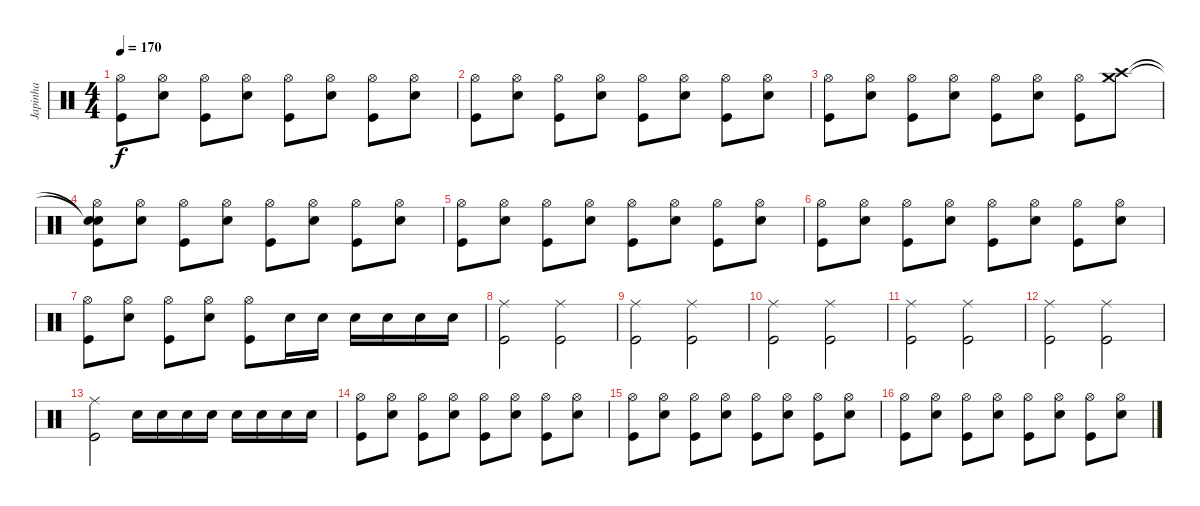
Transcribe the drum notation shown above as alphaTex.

\track ("Japinha" "Japinha") {instrument percussion}
\staff {score}
\articulation defaults
\ts (4 4)
\tempo 170
\clef neutral
\ks c
("Hi-Hat (open)" "Kick (hit)").8{dy f} ("Hi-Hat (open)" "Electric Snare (hit)").8 ("Hi-Hat (open)" "Kick (hit)").8 ("Hi-Hat (open)" "Electric Snare (hit)").8 ("Hi-Hat (open)" "Kick (hit)").8 ("Hi-Hat (open)" "Electric Snare (hit)").8 ("Hi-Hat (open)" "Kick (hit)").8 ("Hi-Hat (open)" "Electric Snare (hit)").8 |
("Hi-Hat (open)" "Kick (hit)").8 ("Hi-Hat (open)" "Electric Snare (hit)").8 ("Hi-Hat (open)" "Kick (hit)").8 ("Hi-Hat (open)" "Electric Snare (hit)").8 ("Hi-Hat (open)" "Kick (hit)").8 ("Hi-Hat (open)" "Electric Snare (hit)").8 ("Hi-Hat (open)" "Kick (hit)").8 ("Hi-Hat (open)" "Electric Snare (hit)").8 |
("Hi-Hat (open)" "Kick (hit)").8 ("Hi-Hat (open)" "Electric Snare (hit)").8 ("Hi-Hat (open)" "Kick (hit)").8 ("Hi-Hat (open)" "Electric Snare (hit)").8 ("Hi-Hat (open)" "Kick (hit)").8 ("Hi-Hat (open)" "Electric Snare (hit)").8 ("Hi-Hat (open)" "Kick (hit)").8 ("Crash high (hit)" "Crash medium (hit)").8 |
("Snare (hit)"{t} "Snare (hit)"{t} "Hi-Hat (open)" "Kick (hit)").8 ("Hi-Hat (open)" "Electric Snare (hit)").8 ("Hi-Hat (open)" "Kick (hit)").8 ("Hi-Hat (open)" "Electric Snare (hit)").8 ("Hi-Hat (open)" "Kick (hit)").8 ("Hi-Hat (open)" "Electric Snare (hit)").8 ("Hi-Hat (open)" "Kick (hit)").8 ("Hi-Hat (open)" "Electric Snare (hit)").8 |
("Hi-Hat (open)" "Kick (hit)").8 ("Hi-Hat (open)" "Electric Snare (hit)").8 ("Hi-Hat (open)" "Kick (hit)").8 ("Hi-Hat (open)" "Electric Snare (hit)").8 ("Hi-Hat (open)" "Kick (hit)").8 ("Hi-Hat (open)" "Electric Snare (hit)").8 ("Hi-Hat (open)" "Kick (hit)").8 ("Hi-Hat (open)" "Electric Snare (hit)").8 |
("Hi-Hat (open)" "Kick (hit)").8 ("Hi-Hat (open)" "Electric Snare (hit)").8 ("Hi-Hat (open)" "Kick (hit)").8 ("Hi-Hat (open)" "Electric Snare (hit)").8 ("Hi-Hat (open)" "Kick (hit)").8 ("Hi-Hat (open)" "Electric Snare (hit)").8 ("Hi-Hat (open)" "Kick (hit)").8 ("Hi-Hat (open)" "Electric Snare (hit)").8 |
("Hi-Hat (open)" "Kick (hit)").8 ("Hi-Hat (open)" "Electric Snare (hit)").8 ("Hi-Hat (open)" "Kick (hit)").8 ("Hi-Hat (open)" "Electric Snare (hit)").8 ("Hi-Hat (open)" "Kick (hit)").8 "Electric Snare (hit)".16 "Electric Snare (hit)".16 "Electric Snare (hit)".16 "Electric Snare (hit)".16 "Electric Snare (hit)".16 "Electric Snare (hit)".16 |
("Ride (middle)" "Kick (hit)").2 ("Ride (middle)" "Kick (hit)").2 |
("Ride (middle)" "Kick (hit)").2 ("Ride (middle)" "Kick (hit)").2 |
("Ride (middle)" "Kick (hit)").2 ("Ride (middle)" "Kick (hit)").2 |
("Ride (middle)" "Kick (hit)").2 ("Ride (middle)" "Kick (hit)").2 |
("Ride (middle)" "Kick (hit)").2 ("Ride (middle)" "Kick (hit)").2 |
("Ride (middle)" "Kick (hit)").2 "Electric Snare (hit)".16 "Electric Snare (hit)".16 "Electric Snare (hit)".16 "Electric Snare (hit)".16 "Electric Snare (hit)".16 "Electric Snare (hit)".16 "Electric Snare (hit)".16 "Electric Snare (hit)".16 |
("Hi-Hat (open)" "Kick (hit)").8 ("Hi-Hat (open)" "Electric Snare (hit)").8 ("Hi-Hat (open)" "Kick (hit)").8 ("Hi-Hat (open)" "Electric Snare (hit)").8 ("Hi-Hat (open)" "Kick (hit)").8 ("Hi-Hat (open)" "Electric Snare (hit)").8 ("Hi-Hat (open)" "Kick (hit)").8 ("Hi-Hat (open)" "Electric Snare (hit)").8 |
("Hi-Hat (open)" "Kick (hit)").8 ("Hi-Hat (open)" "Electric Snare (hit)").8 ("Hi-Hat (open)" "Kick (hit)").8 ("Hi-Hat (open)" "Electric Snare (hit)").8 ("Hi-Hat (open)" "Kick (hit)").8 ("Hi-Hat (open)" "Electric Snare (hit)").8 ("Hi-Hat (open)" "Kick (hit)").8 ("Hi-Hat (open)" "Electric Snare (hit)").8 |
("Hi-Hat (open)" "Kick (hit)").8 ("Hi-Hat (open)" "Electric Snare (hit)").8 ("Hi-Hat (open)" "Kick (hit)").8 ("Hi-Hat (open)" "Electric Snare (hit)").8 ("Hi-Hat (open)" "Kick (hit)").8 ("Hi-Hat (open)" "Electric Snare (hit)").8 ("Hi-Hat (open)" "Kick (hit)").8 ("Hi-Hat (open)" "Electric Snare (hit)").8
